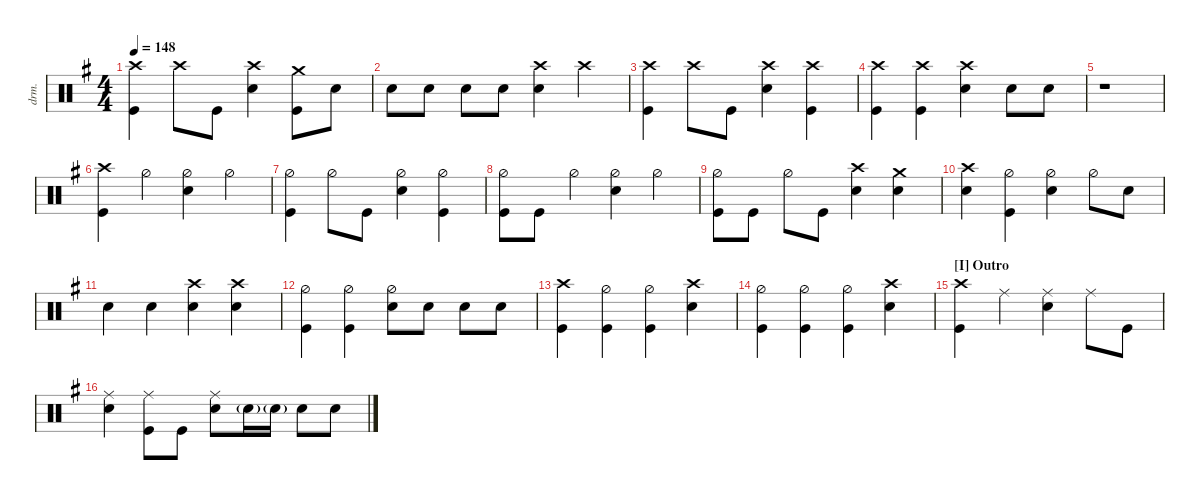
\defaultSystemsLayout 4
\hideDynamics
\bracketExtendMode nobrackets
\otherSystemsTrackNameOrientation horizontal
\track ("Drums" "drm.") {multiBarRest instrument percussion}
\staff
\articulation defaults
\ts (4 4)
\tempo 148
\clef neutral
\ks eminor
("Crash high (hit)"{acc forcenatural} "Kick (hit)"{acc forcenatural}).4{dy mf beam Down} "Crash high (hit)"{acc forcenatural}.8{beam Down} "Kick (hit)"{acc forcenatural}.8{beam Down} ("Crash high (hit)"{acc forcenatural} "Snare (hit) 2"{acc forcenatural}).4{beam Down} ("Crash medium (hit)"{acc forcenatural} "Kick (hit)"{acc forcenatural}).8{beam Down} "Snare (hit) 2"{acc forcenatural}.8{beam Down} |
"Snare (hit) 2"{acc forcenatural}.8{beam Down} "Snare (hit) 2"{acc forcenatural}.8{beam Down} "Snare (hit) 2"{acc forcenatural}.8{beam Down} "Snare (hit) 2"{acc forcenatural}.8{beam Down} ("Snare (hit) 2"{acc forcenatural} "Crash high (hit)"{acc forcenatural}).4{beam Down} "Crash high (hit)"{acc forcenatural}.4{beam Down} |
("Crash high (hit)"{acc forcenatural} "Kick (hit)"{acc forcenatural}).4{beam Down} "Crash high (hit)"{acc forcenatural}.8{beam Down} "Kick (hit)"{acc forcenatural}.8{beam Down} ("Crash high (hit)"{acc forcenatural} "Snare (hit) 2"{acc forcenatural}).4{beam Down} ("Crash high (hit)"{acc forcenatural} "Kick (hit)"{acc forcenatural}).4{beam Down} |
("Crash high (hit)"{acc forcenatural} "Kick (hit)"{acc forcenatural}).4{beam Down} ("Crash high (hit)"{acc forcenatural} "Kick (hit)"{acc forcenatural}).4{beam Down} ("Snare (hit) 2"{acc forcenatural} "Crash high (hit)"{acc forcenatural}).4{beam Down} "Snare (hit) 2"{acc forcenatural}.8{beam Down} "Snare (hit) 2"{acc forcenatural}.8{beam Down} |
r.1{beam Down} |
("Kick (hit)"{acc forcenatural} "Crash high (hit)"{acc forcenatural}).4{beam Down} "Hi-Hat (half)"{acc forcenatural}.4{beam Down} ("Snare (hit) 2"{acc forcenatural} "Hi-Hat (half)"{acc forcenatural}).4{beam Down} "Hi-Hat (half)"{acc forcenatural}.4{beam Down} |
("Kick (hit)"{acc forcenatural} "Hi-Hat (half)"{acc forcenatural}).4{beam Down} "Hi-Hat (half)"{acc forcenatural}.8{beam Down} "Kick (hit)"{acc forcenatural}.8{beam Down} ("Hi-Hat (half)"{acc forcenatural} "Snare (hit) 2"{acc forcenatural}).4{beam Down} ("Hi-Hat (half)"{acc forcenatural} "Kick (hit)"{acc forcenatural}).4{beam Down} |
("Kick (hit)"{acc forcenatural} "Hi-Hat (half)"{acc forcenatural}).8{beam Down} "Kick (hit)"{acc forcenatural}.8{beam Down} "Hi-Hat (half)"{acc forcenatural}.4{beam Down} ("Hi-Hat (half)"{acc forcenatural} "Snare (hit) 2"{acc forcenatural}).4{beam Down} "Hi-Hat (half)"{acc forcenatural}.4{beam Down} |
("Hi-Hat (half)"{acc forcenatural} "Kick (hit)"{acc forcenatural}).8{beam Down} "Kick (hit)"{acc forcenatural}.8{beam Down} "Hi-Hat (half)"{acc forcenatural}.8{beam Down} "Kick (hit)"{acc forcenatural}.8{beam Down} ("Crash high (hit)"{acc forcenatural} "Snare (hit) 2"{acc forcenatural}).4{beam Down} ("Snare (hit) 2"{acc forcenatural} "Crash medium (hit)"{acc forcenatural}).4{beam Down} |
("Crash high (hit)"{acc forcenatural} "Snare (hit) 2"{acc forcenatural}).4{beam Down} ("Kick (hit)"{acc forcenatural} "Hi-Hat (half)"{acc forcenatural}).4{beam Down} ("Hi-Hat (half)"{acc forcenatural} "Snare (hit) 2"{acc forcenatural}).4{beam Down} "Hi-Hat (half)"{acc forcenatural}.8{beam Down} "Snare (hit) 2"{acc forcenatural}.8{beam Down} |
"Snare (hit) 2"{acc forcenatural}.4{beam Down} "Snare (hit) 2"{acc forcenatural}.4{beam Down} ("Snare (hit) 2"{acc forcenatural} "Crash high (hit)"{acc forcenatural}).4{beam Down} ("Snare (hit) 2"{acc forcenatural} "Crash high (hit)"{acc forcenatural}).4{beam Down} |
("Hi-Hat (half)"{acc forcenatural} "Kick (hit)"{acc forcenatural}).4{beam Down} ("Hi-Hat (half)"{acc forcenatural} "Kick (hit)"{acc forcenatural}).4{beam Down} ("Hi-Hat (half)"{acc forcenatural} "Snare (hit) 2"{acc forcenatural}).8{beam Down} "Snare (hit) 2"{acc forcenatural}.8{beam Down} "Snare (hit) 2"{acc forcenatural}.8{beam Down} "Snare (hit) 2"{acc forcenatural}.8{beam Down} |
("Kick (hit)"{acc forcenatural} "Crash high (hit)"{acc forcenatural}).4{beam Down} ("Hi-Hat (half)"{acc forcenatural} "Kick (hit)"{acc forcenatural}).4{beam Down} ("Hi-Hat (half)"{acc forcenatural} "Kick (hit)"{acc forcenatural}).4{beam Down} ("Snare (hit) 2"{acc forcenatural} "Crash high (hit)"{acc forcenatural}).4{beam Down} |
("Hi-Hat (half)"{acc forcenatural} "Kick (hit)"{acc forcenatural}).4{beam Down} ("Hi-Hat (half)"{acc forcenatural} "Kick (hit)"{acc forcenatural}).4{beam Down} ("Hi-Hat (half)"{acc forcenatural} "Kick (hit)"{acc forcenatural}).4{beam Down} ("Snare (hit) 2"{acc forcenatural} "Crash high (hit)"{acc forcenatural}).4{beam Down} |
\section ("I" "Outro")
("Kick (hit)"{acc forcenatural} "Crash high (hit)"{acc forcenatural}).4{beam Down} "Ride (middle)"{acc forcenatural}.4{beam Down} ("Snare (hit) 2"{acc forcenatural} "Ride (middle)"{acc forcenatural}).4{beam Down} "Ride (middle)"{acc forcenatural}.8{beam Down} "Kick (hit)"{acc forcenatural}.8{beam Down} |
("Snare (hit) 2"{acc forcenatural} "Ride (middle)"{acc forcenatural}).4{beam Down} ("Ride (middle)"{acc forcenatural} "Kick (hit)"{acc forcenatural}).8{beam Down} "Kick (hit)"{acc forcenatural}.8{beam Down} ("Snare (hit) 2"{acc forcenatural} "Ride (middle)"{acc forcenatural}).8{beam Down} "Snare (hit) 2"{g acc forcenatural}.16{dy mp beam Down} "Snare (hit) 2"{g acc forcenatural}.16{beam Down} "Snare (hit) 2"{acc forcenatural}.8{dy mf beam Down} "Snare (hit) 2"{acc forcenatural}.8{beam Down}
